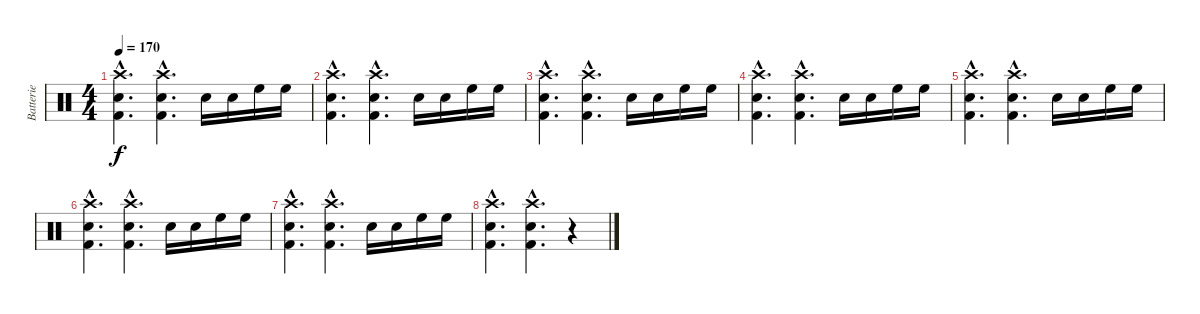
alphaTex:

\track ("Batterie" "Batterie") {instrument percussion}
\staff {score}
\articulation defaults
\ts (4 4)
\section ("" "")
\tempo 170
\clef neutral
\ks c
("Crash high (hit)"{hac} "Kick (hit) 2"{hac} "Snare (hit) 2"{hac}).4{d dy f} ("Crash high (hit)"{hac} "Kick (hit) 2"{hac} "Snare (hit) 2"{hac}).4{d} "Snare (hit) 2".16 "Snare (hit) 2".16 "High Floor Tom (hit)".16 "High Floor Tom (hit)".16 |
("Crash high (hit)"{hac} "Kick (hit) 2"{hac} "Snare (hit) 2"{hac}).4{d} ("Crash high (hit)"{hac} "Kick (hit) 2"{hac} "Snare (hit) 2"{hac}).4{d} "Snare (hit) 2".16 "Snare (hit) 2".16 "High Floor Tom (hit)".16 "High Floor Tom (hit)".16 |
("Crash high (hit)"{hac} "Kick (hit) 2"{hac} "Snare (hit) 2"{hac}).4{d} ("Crash high (hit)"{hac} "Kick (hit) 2"{hac} "Snare (hit) 2"{hac}).4{d} "Snare (hit) 2".16 "Snare (hit) 2".16 "High Floor Tom (hit)".16 "High Floor Tom (hit)".16 |
("Crash high (hit)"{hac} "Kick (hit) 2"{hac} "Snare (hit) 2"{hac}).4{d} ("Crash high (hit)"{hac} "Kick (hit) 2"{hac} "Snare (hit) 2"{hac}).4{d} "Snare (hit) 2".16 "Snare (hit) 2".16 "High Floor Tom (hit)".16 "High Floor Tom (hit)".16 |
("Crash high (hit)"{hac} "Kick (hit) 2"{hac} "Snare (hit) 2"{hac}).4{d} ("Crash high (hit)"{hac} "Kick (hit) 2"{hac} "Snare (hit) 2"{hac}).4{d} "Snare (hit) 2".16 "Snare (hit) 2".16 "High Floor Tom (hit)".16 "High Floor Tom (hit)".16 |
("Crash high (hit)"{hac} "Kick (hit) 2"{hac} "Snare (hit) 2"{hac}).4{d} ("Crash high (hit)"{hac} "Kick (hit) 2"{hac} "Snare (hit) 2"{hac}).4{d} "Snare (hit) 2".16 "Snare (hit) 2".16 "High Floor Tom (hit)".16 "High Floor Tom (hit)".16 |
("Crash high (hit)"{hac} "Kick (hit) 2"{hac} "Snare (hit) 2"{hac}).4{d} ("Crash high (hit)"{hac} "Kick (hit) 2"{hac} "Snare (hit) 2"{hac}).4{d} "Snare (hit) 2".16 "Snare (hit) 2".16 "High Floor Tom (hit)".16 "High Floor Tom (hit)".16 |
("Crash high (hit)"{hac} "Kick (hit) 2"{hac} "Snare (hit) 2"{hac}).4{d} ("Crash high (hit)"{hac} "Kick (hit) 2"{hac} "Snare (hit) 2"{hac}).4{d} r.4
